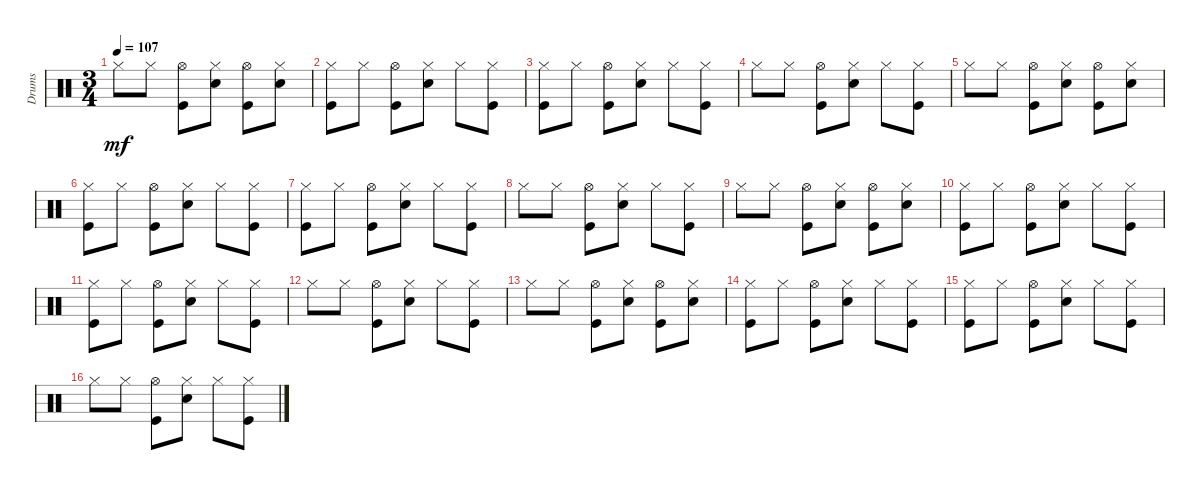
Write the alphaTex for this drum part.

\track ("Drums" "Drums") {instrument percussion}
\staff {score}
\articulation defaults
\ts (3 4)
\tempo 107
\clef neutral
\ks c "Hi-Hat (closed)".8{dy mf} "Hi-Hat (closed)".8
("Hi-Hat (open)" "Kick (hit)").8 ("Hi-Hat (closed)" "Snare (hit) 2").8 ("Hi-Hat (open)" "Kick (hit)").8 ("Hi-Hat (closed)" "Snare (hit) 2").8 |
("Hi-Hat (closed)" "Kick (hit)").8 "Hi-Hat (closed)".8 ("Hi-Hat (open)" "Kick (hit)").8 ("Snare (hit) 2" "Hi-Hat (closed)").8 "Hi-Hat (closed)".8 ("Hi-Hat (closed)" "Kick (hit)").8 |
("Hi-Hat (closed)" "Kick (hit)").8 "Hi-Hat (closed)".8 ("Hi-Hat (open)" "Kick (hit)").8 ("Hi-Hat (closed)" "Snare (hit) 2").8 "Hi-Hat (closed)".8 ("Hi-Hat (closed)" "Kick (hit)").8 |
"Hi-Hat (closed)".8 "Hi-Hat (closed)".8 ("Hi-Hat (open)" "Kick (hit)").8 ("Snare (hit) 2" "Hi-Hat (closed)").8 "Hi-Hat (closed)".8 ("Kick (hit)" "Hi-Hat (closed)").8 |
"Hi-Hat (closed)".8 "Hi-Hat (closed)".8 ("Hi-Hat (open)" "Kick (hit)").8 ("Hi-Hat (closed)" "Snare (hit) 2").8 ("Hi-Hat (open)" "Kick (hit)").8 ("Hi-Hat (closed)" "Snare (hit) 2").8 |
("Hi-Hat (closed)" "Kick (hit)").8 "Hi-Hat (closed)".8 ("Hi-Hat (open)" "Kick (hit)").8 ("Snare (hit) 2" "Hi-Hat (closed)").8 "Hi-Hat (closed)".8 ("Hi-Hat (closed)" "Kick (hit)").8 |
("Hi-Hat (closed)" "Kick (hit)").8 "Hi-Hat (closed)".8 ("Hi-Hat (open)" "Kick (hit)").8 ("Hi-Hat (closed)" "Snare (hit) 2").8 "Hi-Hat (closed)".8 ("Hi-Hat (closed)" "Kick (hit)").8 |
"Hi-Hat (closed)".8 "Hi-Hat (closed)".8 ("Hi-Hat (open)" "Kick (hit)").8 ("Snare (hit) 2" "Hi-Hat (closed)").8 "Hi-Hat (closed)".8 ("Kick (hit)" "Hi-Hat (closed)").8 |
"Hi-Hat (closed)".8 "Hi-Hat (closed)".8 ("Hi-Hat (open)" "Kick (hit)").8 ("Hi-Hat (closed)" "Snare (hit) 2").8 ("Hi-Hat (open)" "Kick (hit)").8 ("Hi-Hat (closed)" "Snare (hit) 2").8 |
("Hi-Hat (closed)" "Kick (hit)").8 "Hi-Hat (closed)".8 ("Hi-Hat (open)" "Kick (hit)").8 ("Snare (hit) 2" "Hi-Hat (closed)").8 "Hi-Hat (closed)".8 ("Hi-Hat (closed)" "Kick (hit)").8 |
("Hi-Hat (closed)" "Kick (hit)").8 "Hi-Hat (closed)".8 ("Hi-Hat (open)" "Kick (hit)").8 ("Hi-Hat (closed)" "Snare (hit) 2").8 "Hi-Hat (closed)".8 ("Hi-Hat (closed)" "Kick (hit)").8 |
"Hi-Hat (closed)".8 "Hi-Hat (closed)".8 ("Hi-Hat (open)" "Kick (hit)").8 ("Snare (hit) 2" "Hi-Hat (closed)").8 "Hi-Hat (closed)".8 ("Kick (hit)" "Hi-Hat (closed)").8 |
"Hi-Hat (closed)".8 "Hi-Hat (closed)".8 ("Hi-Hat (open)" "Kick (hit)").8 ("Hi-Hat (closed)" "Snare (hit) 2").8 ("Hi-Hat (open)" "Kick (hit)").8 ("Hi-Hat (closed)" "Snare (hit) 2").8 |
("Hi-Hat (closed)" "Kick (hit)").8 "Hi-Hat (closed)".8 ("Hi-Hat (open)" "Kick (hit)").8 ("Snare (hit) 2" "Hi-Hat (closed)").8 "Hi-Hat (closed)".8 ("Hi-Hat (closed)" "Kick (hit)").8 |
("Hi-Hat (closed)" "Kick (hit)").8 "Hi-Hat (closed)".8 ("Hi-Hat (open)" "Kick (hit)").8 ("Hi-Hat (closed)" "Snare (hit) 2").8 "Hi-Hat (closed)".8 ("Hi-Hat (closed)" "Kick (hit)").8 |
"Hi-Hat (closed)".8 "Hi-Hat (closed)".8 ("Hi-Hat (open)" "Kick (hit)").8 ("Snare (hit) 2" "Hi-Hat (closed)").8 "Hi-Hat (closed)".8 ("Kick (hit)" "Hi-Hat (closed)").8
